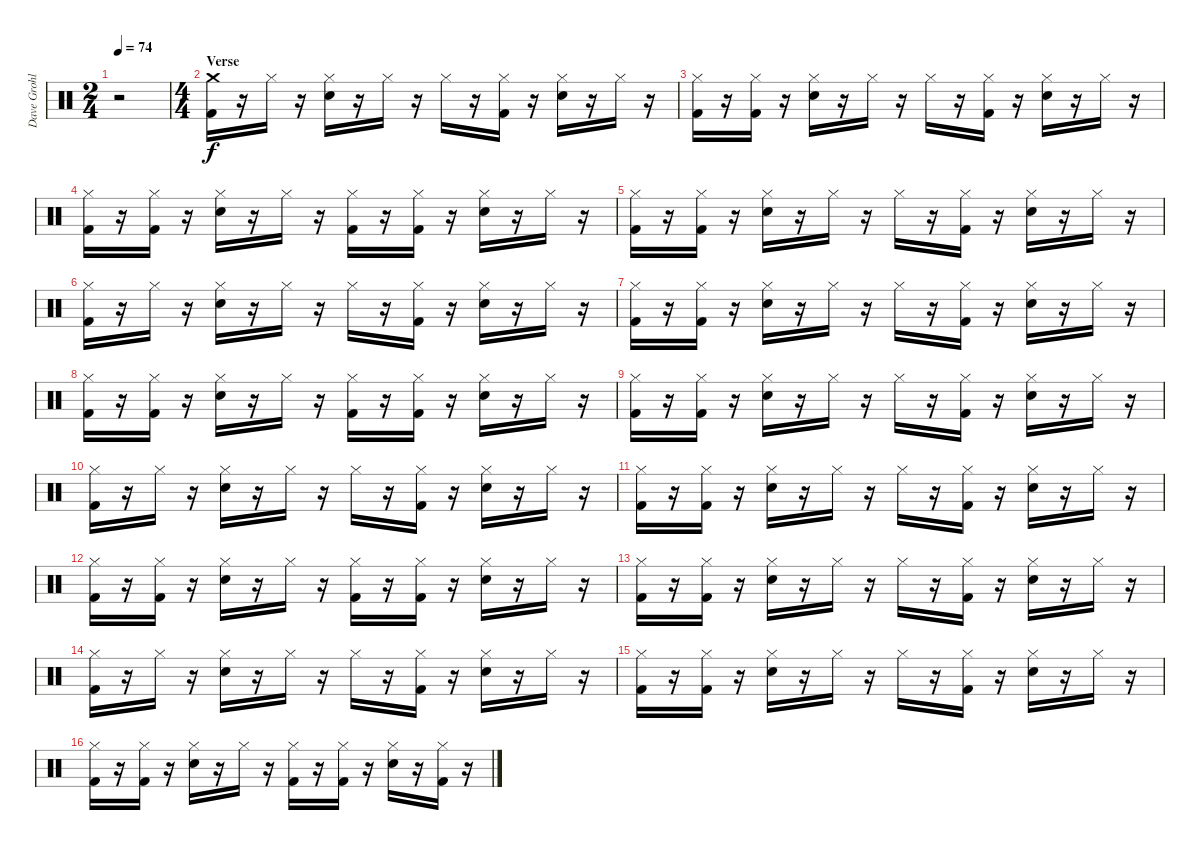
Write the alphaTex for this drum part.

\track ("Dave Grohl" "Dave Grohl") {instrument percussion}
\staff {score}
\articulation defaults
\ts (2 4)
\tempo 74
\clef neutral
\ks c
r.2{dy f} |
\ts (4 4)
\section ("" "Verse")
("Crash medium (hit)" "Kick (hit) 2").16 r.16 "Hi-Hat (closed)".16 r.16 ("Hi-Hat (closed)" "Snare (hit) 2").16 r.16 "Hi-Hat (closed)".16 r.16 "Hi-Hat (closed)".16 r.16 ("Hi-Hat (closed)" "Kick (hit) 2").16 r.16 ("Hi-Hat (closed)" "Snare (hit) 2").16 r.16 "Hi-Hat (closed)".16 r.16 |
("Hi-Hat (closed)" "Kick (hit) 2").16 r.16 ("Hi-Hat (closed)" "Kick (hit) 2").16 r.16 ("Hi-Hat (closed)" "Snare (hit) 2").16 r.16 "Hi-Hat (closed)".16 r.16 "Hi-Hat (closed)".16 r.16 ("Hi-Hat (closed)" "Kick (hit) 2").16 r.16 ("Hi-Hat (closed)" "Snare (hit) 2").16 r.16 "Hi-Hat (closed)".16 r.16 |
("Hi-Hat (closed)" "Kick (hit) 2").16 r.16 ("Hi-Hat (closed)" "Kick (hit) 2").16 r.16 ("Hi-Hat (closed)" "Snare (hit) 2").16 r.16 "Hi-Hat (closed)".16 r.16 ("Hi-Hat (closed)" "Kick (hit) 2").16 r.16 ("Hi-Hat (closed)" "Kick (hit) 2").16 r.16 ("Hi-Hat (closed)" "Snare (hit) 2").16 r.16 "Hi-Hat (closed)".16 r.16 |
("Hi-Hat (closed)" "Kick (hit) 2").16 r.16 ("Hi-Hat (closed)" "Kick (hit) 2").16 r.16 ("Hi-Hat (closed)" "Snare (hit) 2").16 r.16 "Hi-Hat (closed)".16 r.16 "Hi-Hat (closed)".16 r.16 ("Hi-Hat (closed)" "Kick (hit) 2").16 r.16 ("Hi-Hat (closed)" "Snare (hit) 2").16 r.16 "Hi-Hat (closed)".16 r.16 |
("Hi-Hat (closed)" "Kick (hit) 2").16 r.16 "Hi-Hat (closed)".16 r.16 ("Hi-Hat (closed)" "Snare (hit) 2").16 r.16 "Hi-Hat (closed)".16 r.16 "Hi-Hat (closed)".16 r.16 ("Hi-Hat (closed)" "Kick (hit) 2").16 r.16 ("Hi-Hat (closed)" "Snare (hit) 2").16 r.16 "Hi-Hat (closed)".16 r.16 |
("Hi-Hat (closed)" "Kick (hit) 2").16 r.16 ("Hi-Hat (closed)" "Kick (hit) 2").16 r.16 ("Hi-Hat (closed)" "Snare (hit) 2").16 r.16 "Hi-Hat (closed)".16 r.16 "Hi-Hat (closed)".16 r.16 ("Hi-Hat (closed)" "Kick (hit) 2").16 r.16 ("Hi-Hat (closed)" "Snare (hit) 2").16 r.16 "Hi-Hat (closed)".16 r.16 |
("Hi-Hat (closed)" "Kick (hit) 2").16 r.16 ("Hi-Hat (closed)" "Kick (hit) 2").16 r.16 ("Hi-Hat (closed)" "Snare (hit) 2").16 r.16 "Hi-Hat (closed)".16 r.16 ("Hi-Hat (closed)" "Kick (hit) 2").16 r.16 ("Hi-Hat (closed)" "Kick (hit) 2").16 r.16 ("Hi-Hat (closed)" "Snare (hit) 2").16 r.16 "Hi-Hat (closed)".16 r.16 |
("Hi-Hat (closed)" "Kick (hit) 2").16 r.16 ("Hi-Hat (closed)" "Kick (hit) 2").16 r.16 ("Hi-Hat (closed)" "Snare (hit) 2").16 r.16 "Hi-Hat (closed)".16 r.16 "Hi-Hat (closed)".16 r.16 ("Hi-Hat (closed)" "Kick (hit) 2").16 r.16 ("Hi-Hat (closed)" "Snare (hit) 2").16 r.16 "Hi-Hat (closed)".16 r.16 |
("Hi-Hat (closed)" "Kick (hit) 2").16 r.16 "Hi-Hat (closed)".16 r.16 ("Hi-Hat (closed)" "Snare (hit) 2").16 r.16 "Hi-Hat (closed)".16 r.16 "Hi-Hat (closed)".16 r.16 ("Hi-Hat (closed)" "Kick (hit) 2").16 r.16 ("Hi-Hat (closed)" "Snare (hit) 2").16 r.16 "Hi-Hat (closed)".16 r.16 |
("Hi-Hat (closed)" "Kick (hit) 2").16 r.16 ("Hi-Hat (closed)" "Kick (hit) 2").16 r.16 ("Hi-Hat (closed)" "Snare (hit) 2").16 r.16 "Hi-Hat (closed)".16 r.16 "Hi-Hat (closed)".16 r.16 ("Hi-Hat (closed)" "Kick (hit) 2").16 r.16 ("Hi-Hat (closed)" "Snare (hit) 2").16 r.16 "Hi-Hat (closed)".16 r.16 |
("Hi-Hat (closed)" "Kick (hit) 2").16 r.16 ("Hi-Hat (closed)" "Kick (hit) 2").16 r.16 ("Hi-Hat (closed)" "Snare (hit) 2").16 r.16 "Hi-Hat (closed)".16 r.16 ("Hi-Hat (closed)" "Kick (hit) 2").16 r.16 ("Hi-Hat (closed)" "Kick (hit) 2").16 r.16 ("Hi-Hat (closed)" "Snare (hit) 2").16 r.16 "Hi-Hat (closed)".16 r.16 |
("Hi-Hat (closed)" "Kick (hit) 2").16 r.16 ("Hi-Hat (closed)" "Kick (hit) 2").16 r.16 ("Hi-Hat (closed)" "Snare (hit) 2").16 r.16 "Hi-Hat (closed)".16 r.16 "Hi-Hat (closed)".16 r.16 ("Hi-Hat (closed)" "Kick (hit) 2").16 r.16 ("Hi-Hat (closed)" "Snare (hit) 2").16 r.16 "Hi-Hat (closed)".16 r.16 |
("Hi-Hat (closed)" "Kick (hit) 2").16 r.16 "Hi-Hat (closed)".16 r.16 ("Hi-Hat (closed)" "Snare (hit) 2").16 r.16 "Hi-Hat (closed)".16 r.16 "Hi-Hat (closed)".16 r.16 ("Hi-Hat (closed)" "Kick (hit) 2").16 r.16 ("Hi-Hat (closed)" "Snare (hit) 2").16 r.16 "Hi-Hat (closed)".16 r.16 |
("Hi-Hat (closed)" "Kick (hit) 2").16 r.16 ("Hi-Hat (closed)" "Kick (hit) 2").16 r.16 ("Hi-Hat (closed)" "Snare (hit) 2").16 r.16 "Hi-Hat (closed)".16 r.16 "Hi-Hat (closed)".16 r.16 ("Hi-Hat (closed)" "Kick (hit) 2").16 r.16 ("Hi-Hat (closed)" "Snare (hit) 2").16 r.16 "Hi-Hat (closed)".16 r.16 |
("Hi-Hat (closed)" "Kick (hit) 2").16 r.16 ("Hi-Hat (closed)" "Kick (hit) 2").16 r.16 ("Hi-Hat (closed)" "Snare (hit) 2").16 r.16 "Hi-Hat (closed)".16 r.16 ("Hi-Hat (closed)" "Kick (hit) 2").16 r.16 ("Hi-Hat (closed)" "Kick (hit) 2").16 r.16 ("Hi-Hat (closed)" "Snare (hit) 2").16 r.16 ("Hi-Hat (closed)" "Kick (hit) 2").16 r.16
